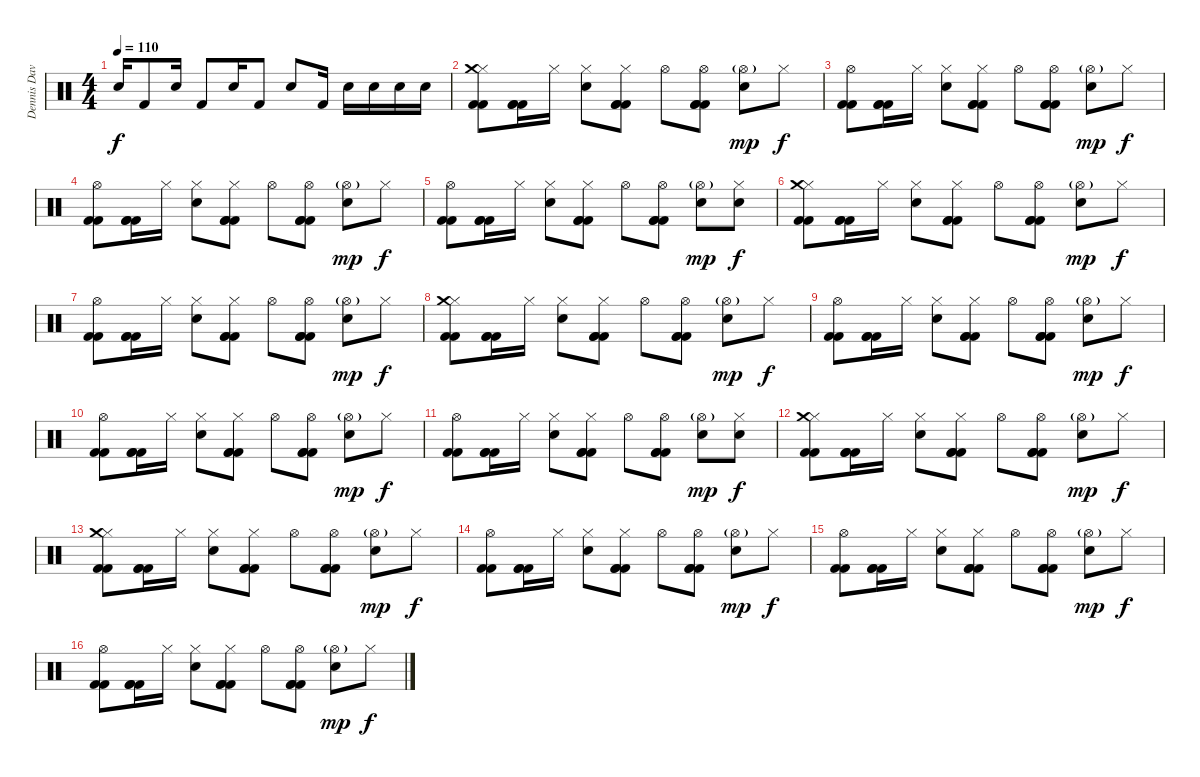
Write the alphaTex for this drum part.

\track ("Dennis Davis" "Dennis Dav") {instrument percussion}
\staff {score}
\articulation defaults
\ts (4 4)
\tempo 110
\clef neutral
\ks c "Snare (hit) 2".16{dy f} "Kick (hit) 2".8 "Snare (hit) 2".16 "Kick (hit) 2".8 "Snare (hit) 2".16 "Kick (hit) 2".8 "Snare (hit) 2".8 "Kick (hit) 2".16 "Snare (hit) 2".16 "Snare (hit) 2".16 "Snare (hit) 2".16 "Snare (hit) 2".16
|
("Hi-Hat (closed)" "Crash medium (hit)" "Kick (hit) 2" "Kick (hit) 2").8 ("Kick (hit) 2" "Kick (hit) 2" "Kick (hit) 2").16 "Hi-Hat (closed)".16 ("Hi-Hat (closed)" "Snare (hit) 2").8 ("Hi-Hat (closed)" "Kick (hit) 2" "Kick (hit) 2" "Kick (hit) 2").8 "Hi-Hat (open)".8 ("Hi-Hat (open)" "Kick (hit) 2" "Kick (hit) 2" "Kick (hit) 2").8 ("Hi-Hat (open)"{g} "Snare (hit) 2").8{dy mp} "Hi-Hat (closed)".8{dy f} |
("Hi-Hat (open)" "Kick (hit) 2" "Kick (hit) 2").8 ("Kick (hit) 2" "Kick (hit) 2" "Kick (hit) 2").16 "Hi-Hat (closed)".16 ("Hi-Hat (closed)" "Snare (hit) 2").8 ("Hi-Hat (closed)" "Kick (hit) 2" "Kick (hit) 2" "Kick (hit) 2").8 "Hi-Hat (open)".8 ("Hi-Hat (open)" "Kick (hit) 2" "Kick (hit) 2" "Kick (hit) 2").8 ("Hi-Hat (open)"{g} "Snare (hit) 2").8{dy mp} "Hi-Hat (closed)".8{dy f} |
("Hi-Hat (open)" "Kick (hit) 2" "Kick (hit) 2").8 ("Kick (hit) 2" "Kick (hit) 2" "Kick (hit) 2").16 "Hi-Hat (closed)".16 ("Hi-Hat (closed)" "Snare (hit) 2").8 ("Hi-Hat (closed)" "Kick (hit) 2" "Kick (hit) 2" "Kick (hit) 2").8 "Hi-Hat (open)".8 ("Hi-Hat (open)" "Kick (hit) 2" "Kick (hit) 2" "Kick (hit) 2").8 ("Hi-Hat (open)"{g} "Snare (hit) 2").8{dy mp} "Hi-Hat (closed)".8{dy f} |
("Hi-Hat (open)" "Kick (hit) 2" "Kick (hit) 2").8 ("Kick (hit) 2" "Kick (hit) 2" "Kick (hit) 2").16 "Hi-Hat (closed)".16 ("Hi-Hat (closed)" "Snare (hit) 2").8 ("Hi-Hat (closed)" "Kick (hit) 2" "Kick (hit) 2" "Kick (hit) 2").8 "Hi-Hat (open)".8 ("Hi-Hat (open)" "Kick (hit) 2" "Kick (hit) 2" "Kick (hit) 2").8 ("Hi-Hat (open)"{g} "Snare (hit) 2").8{dy mp} ("Hi-Hat (closed)" "Snare (hit) 2").8{dy f} |
("Hi-Hat (closed)" "Crash medium (hit)" "Kick (hit) 2" "Kick (hit) 2").8 ("Kick (hit) 2" "Kick (hit) 2" "Kick (hit) 2").16 "Hi-Hat (closed)".16 ("Hi-Hat (closed)" "Snare (hit) 2").8 ("Hi-Hat (closed)" "Kick (hit) 2" "Kick (hit) 2" "Kick (hit) 2").8 "Hi-Hat (open)".8 ("Hi-Hat (open)" "Kick (hit) 2" "Kick (hit) 2" "Kick (hit) 2").8 ("Hi-Hat (open)"{g} "Snare (hit) 2").8{dy mp} "Hi-Hat (closed)".8{dy f} |
("Hi-Hat (open)" "Kick (hit) 2" "Kick (hit) 2").8 ("Kick (hit) 2" "Kick (hit) 2" "Kick (hit) 2").16 "Hi-Hat (closed)".16 ("Hi-Hat (closed)" "Snare (hit) 2").8 ("Hi-Hat (closed)" "Kick (hit) 2" "Kick (hit) 2" "Kick (hit) 2").8 "Hi-Hat (open)".8 ("Hi-Hat (open)" "Kick (hit) 2" "Kick (hit) 2" "Kick (hit) 2").8 ("Hi-Hat (open)"{g} "Snare (hit) 2").8{dy mp} "Hi-Hat (closed)".8{dy f} |
("Hi-Hat (closed)" "Crash medium (hit)" "Kick (hit) 2" "Kick (hit) 2").8 ("Kick (hit) 2" "Kick (hit) 2" "Kick (hit) 2").16 "Hi-Hat (closed)".16 ("Hi-Hat (closed)" "Snare (hit) 2").8 ("Hi-Hat (closed)" "Kick (hit) 2" "Kick (hit) 2" "Kick (hit) 2").8 "Hi-Hat (open)".8 ("Hi-Hat (open)" "Kick (hit) 2" "Kick (hit) 2" "Kick (hit) 2").8 ("Hi-Hat (open)"{g} "Snare (hit) 2").8{dy mp} "Hi-Hat (closed)".8{dy f} |
("Hi-Hat (open)" "Kick (hit) 2" "Kick (hit) 2").8 ("Kick (hit) 2" "Kick (hit) 2" "Kick (hit) 2").16 "Hi-Hat (closed)".16 ("Hi-Hat (closed)" "Snare (hit) 2").8 ("Hi-Hat (closed)" "Kick (hit) 2" "Kick (hit) 2" "Kick (hit) 2").8 "Hi-Hat (open)".8 ("Hi-Hat (open)" "Kick (hit) 2" "Kick (hit) 2" "Kick (hit) 2").8 ("Hi-Hat (open)"{g} "Snare (hit) 2").8{dy mp} "Hi-Hat (closed)".8{dy f} |
("Hi-Hat (open)" "Kick (hit) 2" "Kick (hit) 2").8 ("Kick (hit) 2" "Kick (hit) 2" "Kick (hit) 2").16 "Hi-Hat (closed)".16 ("Hi-Hat (closed)" "Snare (hit) 2").8 ("Hi-Hat (closed)" "Kick (hit) 2" "Kick (hit) 2" "Kick (hit) 2").8 "Hi-Hat (open)".8 ("Hi-Hat (open)" "Kick (hit) 2" "Kick (hit) 2" "Kick (hit) 2").8 ("Hi-Hat (open)"{g} "Snare (hit) 2").8{dy mp} "Hi-Hat (closed)".8{dy f} |
("Hi-Hat (open)" "Kick (hit) 2" "Kick (hit) 2").8 ("Kick (hit) 2" "Kick (hit) 2" "Kick (hit) 2").16 "Hi-Hat (closed)".16 ("Hi-Hat (closed)" "Snare (hit) 2").8 ("Hi-Hat (closed)" "Kick (hit) 2" "Kick (hit) 2" "Kick (hit) 2").8 "Hi-Hat (open)".8 ("Hi-Hat (open)" "Kick (hit) 2" "Kick (hit) 2" "Kick (hit) 2").8 ("Hi-Hat (open)"{g} "Snare (hit) 2").8{dy mp} ("Hi-Hat (closed)" "Snare (hit) 2").8{dy f} |
("Hi-Hat (closed)" "Crash medium (hit)" "Kick (hit) 2" "Kick (hit) 2").8 ("Kick (hit) 2" "Kick (hit) 2" "Kick (hit) 2").16 "Hi-Hat (closed)".16 ("Hi-Hat (closed)" "Snare (hit) 2").8 ("Hi-Hat (closed)" "Kick (hit) 2" "Kick (hit) 2" "Kick (hit) 2").8 "Hi-Hat (open)".8 ("Hi-Hat (open)" "Kick (hit) 2" "Kick (hit) 2" "Kick (hit) 2").8 ("Hi-Hat (open)"{g} "Snare (hit) 2").8{dy mp} "Hi-Hat (closed)".8{dy f} |
("Hi-Hat (closed)" "Crash medium (hit)" "Kick (hit) 2" "Kick (hit) 2").8 ("Kick (hit) 2" "Kick (hit) 2" "Kick (hit) 2").16 "Hi-Hat (closed)".16 ("Hi-Hat (closed)" "Snare (hit) 2").8 ("Hi-Hat (closed)" "Kick (hit) 2" "Kick (hit) 2" "Kick (hit) 2").8 "Hi-Hat (open)".8 ("Hi-Hat (open)" "Kick (hit) 2" "Kick (hit) 2" "Kick (hit) 2").8 ("Hi-Hat (open)"{g} "Snare (hit) 2").8{dy mp} "Hi-Hat (closed)".8{dy f} |
("Hi-Hat (open)" "Kick (hit) 2" "Kick (hit) 2").8 ("Kick (hit) 2" "Kick (hit) 2" "Kick (hit) 2").16 "Hi-Hat (closed)".16 ("Hi-Hat (closed)" "Snare (hit) 2").8 ("Hi-Hat (closed)" "Kick (hit) 2" "Kick (hit) 2" "Kick (hit) 2").8 "Hi-Hat (open)".8 ("Hi-Hat (open)" "Kick (hit) 2" "Kick (hit) 2" "Kick (hit) 2").8 ("Hi-Hat (open)"{g} "Snare (hit) 2").8{dy mp} "Hi-Hat (closed)".8{dy f} |
("Hi-Hat (open)" "Kick (hit) 2" "Kick (hit) 2").8 ("Kick (hit) 2" "Kick (hit) 2" "Kick (hit) 2").16 "Hi-Hat (closed)".16 ("Hi-Hat (closed)" "Snare (hit) 2").8 ("Hi-Hat (closed)" "Kick (hit) 2" "Kick (hit) 2" "Kick (hit) 2").8 "Hi-Hat (open)".8 ("Hi-Hat (open)" "Kick (hit) 2" "Kick (hit) 2" "Kick (hit) 2").8 ("Hi-Hat (open)"{g} "Snare (hit) 2").8{dy mp} "Hi-Hat (closed)".8{dy f} |
("Hi-Hat (open)" "Kick (hit) 2" "Kick (hit) 2").8 ("Kick (hit) 2" "Kick (hit) 2" "Kick (hit) 2").16 "Hi-Hat (closed)".16 ("Hi-Hat (closed)" "Snare (hit) 2").8 ("Hi-Hat (closed)" "Kick (hit) 2" "Kick (hit) 2" "Kick (hit) 2").8 "Hi-Hat (open)".8 ("Hi-Hat (open)" "Kick (hit) 2" "Kick (hit) 2" "Kick (hit) 2").8 ("Hi-Hat (open)"{g} "Snare (hit) 2").8{dy mp} "Hi-Hat (closed)".8{dy f}
